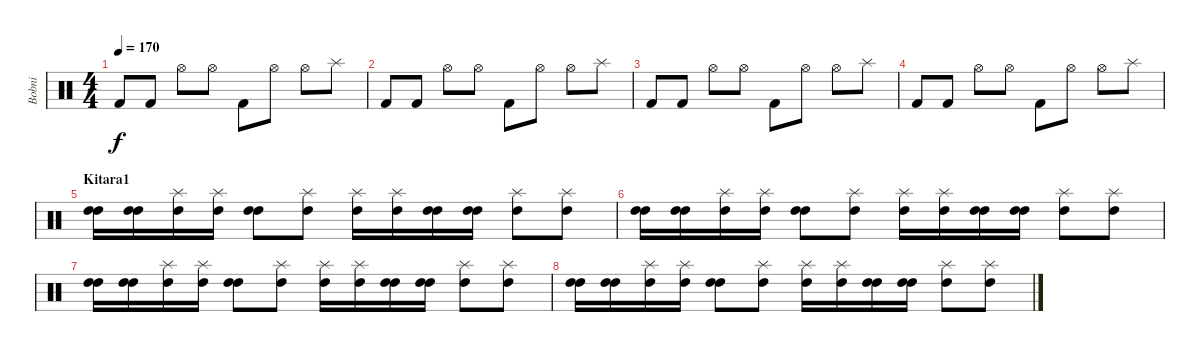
\track ("Bobni" "Bobni") {instrument percussion}
\staff {score}
\articulation defaults
\ts (4 4)
\tempo 170
\clef neutral
\ks c "Kick (hit) 2".8{dy f} "Kick (hit) 2".8 "Hi-Hat (open)".8 "Hi-Hat (open)".8 "Kick (hit) 2".8 "Hi-Hat (open)".8 "Hi-Hat (open)".8 "Splash (hit)".8
|
"Kick (hit) 2".8 "Kick (hit) 2".8 "Hi-Hat (open)".8 "Hi-Hat (open)".8 "Kick (hit) 2".8 "Hi-Hat (open)".8 "Hi-Hat (open)".8 "Splash (hit)".8 |
"Kick (hit) 2".8 "Kick (hit) 2".8 "Hi-Hat (open)".8 "Hi-Hat (open)".8 "Kick (hit) 2".8 "Hi-Hat (open)".8 "Hi-Hat (open)".8 "Splash (hit)".8 |
"Kick (hit) 2".8 "Kick (hit) 2".8 "Hi-Hat (open)".8 "Hi-Hat (open)".8 "Kick (hit) 2".8 "Hi-Hat (open)".8 "Hi-Hat (open)".8 "Splash (hit)".8 |
\section ("" "Kitara1")
("High Tom (hit)" "High Tom (hit)").16 ("High Tom (hit)" "High Tom (hit)").16 ("High Tom (hit)" "Splash (hit)").16 ("High Tom (hit)" "Splash (hit)").16 ("High Tom (hit)" "High Tom (hit)").8 ("High Tom (hit)" "Splash (hit)").8 ("High Tom (hit)" "Splash (hit)").16 ("Splash (hit)" "High Tom (hit)").16 ("High Tom (hit)" "High Tom (hit)").16 ("High Tom (hit)" "High Tom (hit)").16 ("High Tom (hit)" "Splash (hit)").8 ("High Tom (hit)" "Splash (hit)").8 |
("High Tom (hit)" "High Tom (hit)").16 ("High Tom (hit)" "High Tom (hit)").16 ("High Tom (hit)" "Splash (hit)").16 ("High Tom (hit)" "Splash (hit)").16 ("High Tom (hit)" "High Tom (hit)").8 ("High Tom (hit)" "Splash (hit)").8 ("High Tom (hit)" "Splash (hit)").16 ("Splash (hit)" "High Tom (hit)").16 ("High Tom (hit)" "High Tom (hit)").16 ("High Tom (hit)" "High Tom (hit)").16 ("High Tom (hit)" "Splash (hit)").8 ("High Tom (hit)" "Splash (hit)").8 |
("High Tom (hit)" "High Tom (hit)").16 ("High Tom (hit)" "High Tom (hit)").16 ("High Tom (hit)" "Splash (hit)").16 ("High Tom (hit)" "Splash (hit)").16 ("High Tom (hit)" "High Tom (hit)").8 ("High Tom (hit)" "Splash (hit)").8 ("High Tom (hit)" "Splash (hit)").16 ("Splash (hit)" "High Tom (hit)").16 ("High Tom (hit)" "High Tom (hit)").16 ("High Tom (hit)" "High Tom (hit)").16 ("High Tom (hit)" "Splash (hit)").8 ("High Tom (hit)" "Splash (hit)").8 |
("High Tom (hit)" "High Tom (hit)").16 ("High Tom (hit)" "High Tom (hit)").16 ("High Tom (hit)" "Splash (hit)").16 ("High Tom (hit)" "Splash (hit)").16 ("High Tom (hit)" "High Tom (hit)").8 ("High Tom (hit)" "Splash (hit)").8 ("High Tom (hit)" "Splash (hit)").16 ("Splash (hit)" "High Tom (hit)").16 ("High Tom (hit)" "High Tom (hit)").16 ("High Tom (hit)" "High Tom (hit)").16 ("High Tom (hit)" "Splash (hit)").8 ("High Tom (hit)" "Splash (hit)").8
